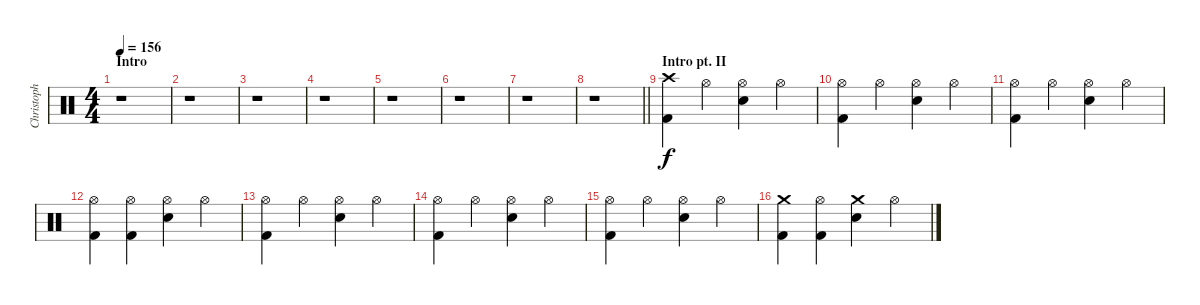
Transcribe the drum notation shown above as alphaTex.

\track ("Christoph Schneider" "Christoph ") {instrument percussion}
\staff {score}
\articulation defaults
\ts (4 4)
\section ("" "Intro")
\tempo 156
\clef neutral
\ks c
r.1{dy f} |
r.1 |
r.1 |
r.1 |
r.1 |
r.1 |
r.1 |
\barLineRight lightlight
r.1 |
\section ("" "Intro pt. II")
("Crash high (hit)" "Kick (hit) 2").4 "Hi-Hat (open)".4 ("Hi-Hat (open)" "Snare (hit) 2").4 "Hi-Hat (open)".4 |
("Hi-Hat (open)" "Kick (hit) 2").4 "Hi-Hat (open)".4 ("Hi-Hat (open)" "Snare (hit) 2").4 "Hi-Hat (open)".4 |
("Hi-Hat (open)" "Kick (hit) 2").4 "Hi-Hat (open)".4 ("Hi-Hat (open)" "Snare (hit) 2").4 "Hi-Hat (open)".4 |
("Hi-Hat (open)" "Kick (hit) 2").4 ("Hi-Hat (open)" "Kick (hit) 2").4 ("Hi-Hat (open)" "Snare (hit) 2").4 "Hi-Hat (open)".4 |
("Hi-Hat (open)" "Kick (hit) 2").4 "Hi-Hat (open)".4 ("Hi-Hat (open)" "Snare (hit) 2").4 "Hi-Hat (open)".4 |
("Hi-Hat (open)" "Kick (hit) 2").4 "Hi-Hat (open)".4 ("Hi-Hat (open)" "Snare (hit) 2").4 "Hi-Hat (open)".4 |
("Hi-Hat (open)" "Kick (hit) 2").4 "Hi-Hat (open)".4 ("Hi-Hat (open)" "Snare (hit) 2").4 "Hi-Hat (open)".4 |
("Crash medium (hit)" "Kick (hit) 2").4 ("Hi-Hat (open)" "Kick (hit) 2").4 ("Crash medium (hit)" "Snare (hit) 2").4 "Hi-Hat (open)".4
